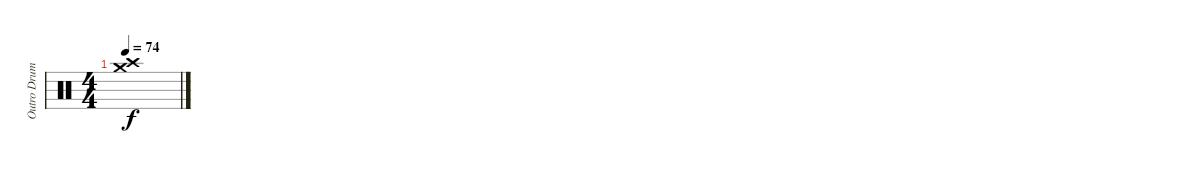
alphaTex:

\track ("Outro Drums 2" "Outro Drum") {instrument percussion}
\staff {score}
\articulation defaults
\ts (4 4)
\tempo 74
\clef neutral
\ks c
("Crash high (hit)" "Crash medium (hit)").1{dy f}
